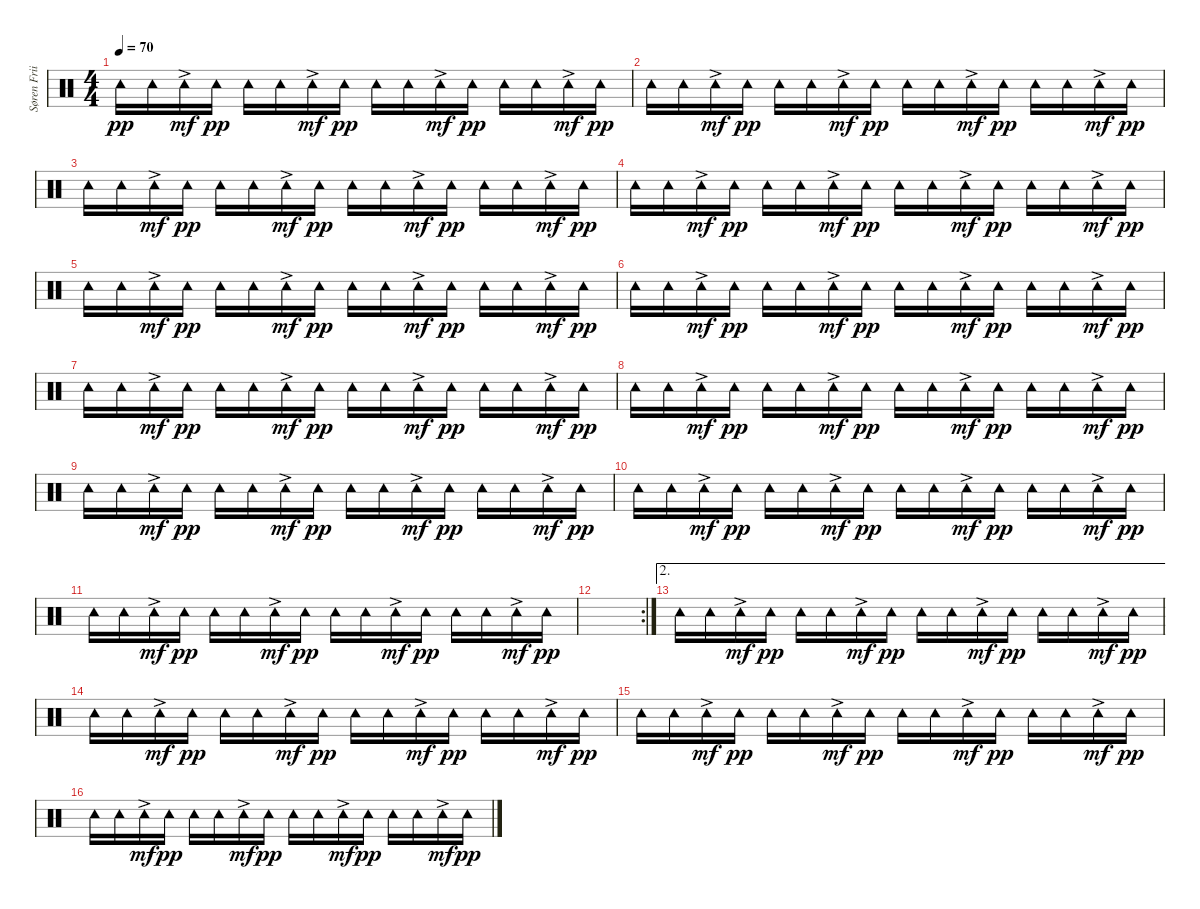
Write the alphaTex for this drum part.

\track ("Søren Friis (Percussion)" "Søren Frii") {instrument percussion}
\staff {score}
\articulation defaults
\ts (4 4)
\tempo 70
\clef neutral
\ks c "Tambourine (hit)".16{dy pp} "Tambourine (hit)".16 "Tambourine (hit)"{ac}.16{dy mf} "Tambourine (hit)".16{dy pp} "Tambourine (hit)".16 "Tambourine (hit)".16 "Tambourine (hit)"{ac}.16{dy mf} "Tambourine (hit)".16{dy pp} "Tambourine (hit)".16 "Tambourine (hit)".16 "Tambourine (hit)"{ac}.16{dy mf} "Tambourine (hit)".16{dy pp} "Tambourine (hit)".16 "Tambourine (hit)".16 "Tambourine (hit)"{ac}.16{dy mf} "Tambourine (hit)".16{dy pp}
|
"Tambourine (hit)".16 "Tambourine (hit)".16 "Tambourine (hit)"{ac}.16{dy mf} "Tambourine (hit)".16{dy pp} "Tambourine (hit)".16 "Tambourine (hit)".16 "Tambourine (hit)"{ac}.16{dy mf} "Tambourine (hit)".16{dy pp} "Tambourine (hit)".16 "Tambourine (hit)".16 "Tambourine (hit)"{ac}.16{dy mf} "Tambourine (hit)".16{dy pp} "Tambourine (hit)".16 "Tambourine (hit)".16 "Tambourine (hit)"{ac}.16{dy mf} "Tambourine (hit)".16{dy pp} |
"Tambourine (hit)".16 "Tambourine (hit)".16 "Tambourine (hit)"{ac}.16{dy mf} "Tambourine (hit)".16{dy pp} "Tambourine (hit)".16 "Tambourine (hit)".16 "Tambourine (hit)"{ac}.16{dy mf} "Tambourine (hit)".16{dy pp} "Tambourine (hit)".16 "Tambourine (hit)".16 "Tambourine (hit)"{ac}.16{dy mf} "Tambourine (hit)".16{dy pp} "Tambourine (hit)".16 "Tambourine (hit)".16 "Tambourine (hit)"{ac}.16{dy mf} "Tambourine (hit)".16{dy pp} |
"Tambourine (hit)".16 "Tambourine (hit)".16 "Tambourine (hit)"{ac}.16{dy mf} "Tambourine (hit)".16{dy pp} "Tambourine (hit)".16 "Tambourine (hit)".16 "Tambourine (hit)"{ac}.16{dy mf} "Tambourine (hit)".16{dy pp} "Tambourine (hit)".16 "Tambourine (hit)".16 "Tambourine (hit)"{ac}.16{dy mf} "Tambourine (hit)".16{dy pp} "Tambourine (hit)".16 "Tambourine (hit)".16 "Tambourine (hit)"{ac}.16{dy mf} "Tambourine (hit)".16{dy pp} |
"Tambourine (hit)".16 "Tambourine (hit)".16 "Tambourine (hit)"{ac}.16{dy mf} "Tambourine (hit)".16{dy pp} "Tambourine (hit)".16 "Tambourine (hit)".16 "Tambourine (hit)"{ac}.16{dy mf} "Tambourine (hit)".16{dy pp} "Tambourine (hit)".16 "Tambourine (hit)".16 "Tambourine (hit)"{ac}.16{dy mf} "Tambourine (hit)".16{dy pp} "Tambourine (hit)".16 "Tambourine (hit)".16 "Tambourine (hit)"{ac}.16{dy mf} "Tambourine (hit)".16{dy pp} |
"Tambourine (hit)".16 "Tambourine (hit)".16 "Tambourine (hit)"{ac}.16{dy mf} "Tambourine (hit)".16{dy pp} "Tambourine (hit)".16 "Tambourine (hit)".16 "Tambourine (hit)"{ac}.16{dy mf} "Tambourine (hit)".16{dy pp} "Tambourine (hit)".16 "Tambourine (hit)".16 "Tambourine (hit)"{ac}.16{dy mf} "Tambourine (hit)".16{dy pp} "Tambourine (hit)".16 "Tambourine (hit)".16 "Tambourine (hit)"{ac}.16{dy mf} "Tambourine (hit)".16{dy pp} |
"Tambourine (hit)".16 "Tambourine (hit)".16 "Tambourine (hit)"{ac}.16{dy mf} "Tambourine (hit)".16{dy pp} "Tambourine (hit)".16 "Tambourine (hit)".16 "Tambourine (hit)"{ac}.16{dy mf} "Tambourine (hit)".16{dy pp} "Tambourine (hit)".16 "Tambourine (hit)".16 "Tambourine (hit)"{ac}.16{dy mf} "Tambourine (hit)".16{dy pp} "Tambourine (hit)".16 "Tambourine (hit)".16 "Tambourine (hit)"{ac}.16{dy mf} "Tambourine (hit)".16{dy pp} |
"Tambourine (hit)".16 "Tambourine (hit)".16 "Tambourine (hit)"{ac}.16{dy mf} "Tambourine (hit)".16{dy pp} "Tambourine (hit)".16 "Tambourine (hit)".16 "Tambourine (hit)"{ac}.16{dy mf} "Tambourine (hit)".16{dy pp} "Tambourine (hit)".16 "Tambourine (hit)".16 "Tambourine (hit)"{ac}.16{dy mf} "Tambourine (hit)".16{dy pp} "Tambourine (hit)".16 "Tambourine (hit)".16 "Tambourine (hit)"{ac}.16{dy mf} "Tambourine (hit)".16{dy pp} |
"Tambourine (hit)".16 "Tambourine (hit)".16 "Tambourine (hit)"{ac}.16{dy mf} "Tambourine (hit)".16{dy pp} "Tambourine (hit)".16 "Tambourine (hit)".16 "Tambourine (hit)"{ac}.16{dy mf} "Tambourine (hit)".16{dy pp} "Tambourine (hit)".16 "Tambourine (hit)".16 "Tambourine (hit)"{ac}.16{dy mf} "Tambourine (hit)".16{dy pp} "Tambourine (hit)".16 "Tambourine (hit)".16 "Tambourine (hit)"{ac}.16{dy mf} "Tambourine (hit)".16{dy pp} |
"Tambourine (hit)".16 "Tambourine (hit)".16 "Tambourine (hit)"{ac}.16{dy mf} "Tambourine (hit)".16{dy pp} "Tambourine (hit)".16 "Tambourine (hit)".16 "Tambourine (hit)"{ac}.16{dy mf} "Tambourine (hit)".16{dy pp} "Tambourine (hit)".16 "Tambourine (hit)".16 "Tambourine (hit)"{ac}.16{dy mf} "Tambourine (hit)".16{dy pp} "Tambourine (hit)".16 "Tambourine (hit)".16 "Tambourine (hit)"{ac}.16{dy mf} "Tambourine (hit)".16{dy pp} |
"Tambourine (hit)".16 "Tambourine (hit)".16 "Tambourine (hit)"{ac}.16{dy mf} "Tambourine (hit)".16{dy pp} "Tambourine (hit)".16 "Tambourine (hit)".16 "Tambourine (hit)"{ac}.16{dy mf} "Tambourine (hit)".16{dy pp} "Tambourine (hit)".16 "Tambourine (hit)".16 "Tambourine (hit)"{ac}.16{dy mf} "Tambourine (hit)".16{dy pp} "Tambourine (hit)".16 "Tambourine (hit)".16 "Tambourine (hit)"{ac}.16{dy mf} "Tambourine (hit)".16{dy pp} |
\rc 2
|
\ae 2 "Tambourine (hit)".16 "Tambourine (hit)".16 "Tambourine (hit)"{ac}.16{dy mf} "Tambourine (hit)".16{dy pp} "Tambourine (hit)".16 "Tambourine (hit)".16 "Tambourine (hit)"{ac}.16{dy mf} "Tambourine (hit)".16{dy pp} "Tambourine (hit)".16 "Tambourine (hit)".16 "Tambourine (hit)"{ac}.16{dy mf} "Tambourine (hit)".16{dy pp} "Tambourine (hit)".16 "Tambourine (hit)".16 "Tambourine (hit)"{ac}.16{dy mf} "Tambourine (hit)".16{dy pp}
|
"Tambourine (hit)".16 "Tambourine (hit)".16 "Tambourine (hit)"{ac}.16{dy mf} "Tambourine (hit)".16{dy pp} "Tambourine (hit)".16 "Tambourine (hit)".16 "Tambourine (hit)"{ac}.16{dy mf} "Tambourine (hit)".16{dy pp} "Tambourine (hit)".16 "Tambourine (hit)".16 "Tambourine (hit)"{ac}.16{dy mf} "Tambourine (hit)".16{dy pp} "Tambourine (hit)".16 "Tambourine (hit)".16 "Tambourine (hit)"{ac}.16{dy mf} "Tambourine (hit)".16{dy pp} |
"Tambourine (hit)".16 "Tambourine (hit)".16 "Tambourine (hit)"{ac}.16{dy mf} "Tambourine (hit)".16{dy pp} "Tambourine (hit)".16 "Tambourine (hit)".16 "Tambourine (hit)"{ac}.16{dy mf} "Tambourine (hit)".16{dy pp} "Tambourine (hit)".16 "Tambourine (hit)".16 "Tambourine (hit)"{ac}.16{dy mf} "Tambourine (hit)".16{dy pp} "Tambourine (hit)".16 "Tambourine (hit)".16 "Tambourine (hit)"{ac}.16{dy mf} "Tambourine (hit)".16{dy pp} |
"Tambourine (hit)".16 "Tambourine (hit)".16 "Tambourine (hit)"{ac}.16{dy mf} "Tambourine (hit)".16{dy pp} "Tambourine (hit)".16 "Tambourine (hit)".16 "Tambourine (hit)"{ac}.16{dy mf} "Tambourine (hit)".16{dy pp} "Tambourine (hit)".16 "Tambourine (hit)".16 "Tambourine (hit)"{ac}.16{dy mf} "Tambourine (hit)".16{dy pp} "Tambourine (hit)".16 "Tambourine (hit)".16 "Tambourine (hit)"{ac}.16{dy mf} "Tambourine (hit)".16{dy pp}
